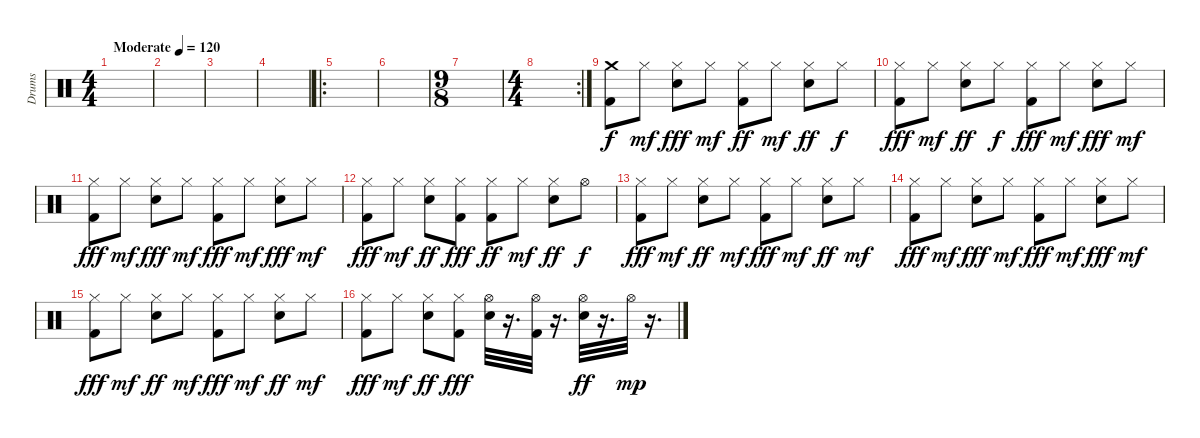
\track ("Drums" "Drums") {instrument percussion}
\staff {score}
\articulation defaults
\ts (4 4)
\tempo (120 "Moderate")
\clef neutral
\ks c
|
|
|
|
\ro
|
|
\ts (9 8)
|
\rc 2
\ts (4 4)
|
("Kick (hit) 2" "Crash medium (hit)").8 "Hi-Hat (closed)".8{dy mf} ("Hi-Hat (closed)" "Snare (hit) 2").8{dy fff} "Hi-Hat (closed)".8{dy mf} ("Kick (hit) 2" "Hi-Hat (closed)").8{dy ff} "Hi-Hat (closed)".8{dy mf} ("Hi-Hat (closed)" "Snare (hit) 2").8{dy ff} "Hi-Hat (closed)".8{dy f} |
("Hi-Hat (closed)" "Kick (hit) 2").8{dy fff} "Hi-Hat (closed)".8{dy mf} ("Hi-Hat (closed)" "Snare (hit) 2").8{dy ff} "Hi-Hat (closed)".8{dy f} ("Kick (hit) 2" "Hi-Hat (closed)").8{dy fff} "Hi-Hat (closed)".8{dy mf} ("Hi-Hat (closed)" "Snare (hit) 2").8{dy fff} "Hi-Hat (closed)".8{dy mf} |
("Hi-Hat (closed)" "Kick (hit) 2").8{dy fff} "Hi-Hat (closed)".8{dy mf} ("Hi-Hat (closed)" "Snare (hit) 2").8{dy fff} "Hi-Hat (closed)".8{dy mf} ("Hi-Hat (closed)" "Kick (hit) 2").8{dy fff} "Hi-Hat (closed)".8{dy mf} ("Snare (hit) 2" "Hi-Hat (closed)").8{dy fff} "Hi-Hat (closed)".8{dy mf} |
("Hi-Hat (closed)" "Kick (hit) 2").8{dy fff} "Hi-Hat (closed)".8{dy mf} ("Snare (hit) 2" "Hi-Hat (closed)").8{dy ff} ("Hi-Hat (closed)" "Kick (hit) 2").8{dy fff} ("Hi-Hat (closed)" "Kick (hit) 2").8{dy ff} "Hi-Hat (closed)".8{dy mf} ("Snare (hit) 2" "Hi-Hat (closed)").8{dy ff} "Hi-Hat (open)".8{dy f} |
("Hi-Hat (closed)" "Kick (hit) 2").8{dy fff} "Hi-Hat (closed)".8{dy mf} ("Snare (hit) 2" "Hi-Hat (closed)").8{dy ff} "Hi-Hat (closed)".8{dy mf} ("Hi-Hat (closed)" "Kick (hit) 2").8{dy fff} "Hi-Hat (closed)".8{dy mf} ("Hi-Hat (closed)" "Snare (hit) 2").8{dy ff} "Hi-Hat (closed)".8{dy mf} |
("Hi-Hat (closed)" "Kick (hit) 2").8{dy fff} "Hi-Hat (closed)".8{dy mf} ("Hi-Hat (closed)" "Snare (hit) 2").8{dy fff} "Hi-Hat (closed)".8{dy mf} ("Hi-Hat (closed)" "Kick (hit) 2").8{dy fff} "Hi-Hat (closed)".8{dy mf} ("Hi-Hat (closed)" "Snare (hit) 2").8{dy fff} "Hi-Hat (closed)".8{dy mf} |
("Hi-Hat (closed)" "Kick (hit) 2").8{dy fff} "Hi-Hat (closed)".8{dy mf} ("Snare (hit) 2" "Hi-Hat (closed)").8{dy ff} "Hi-Hat (closed)".8{dy mf} ("Hi-Hat (closed)" "Kick (hit) 2").8{dy fff} "Hi-Hat (closed)".8{dy mf} ("Hi-Hat (closed)" "Snare (hit) 2").8{dy ff} "Hi-Hat (closed)".8{dy mf} |
("Hi-Hat (closed)" "Kick (hit) 2").8{dy fff} "Hi-Hat (closed)".8{dy mf} ("Snare (hit) 2" "Hi-Hat (closed)").8{dy ff} ("Hi-Hat (closed)" "Kick (hit) 2").8{dy fff} ("Hi-Hat (open)" "Snare (hit) 2").32 r.16{d} ("Hi-Hat (open)" "Kick (hit) 2").32 r.16{d} ("Hi-Hat (open)" "Snare (hit) 2").32{dy ff} r.16{d} "Hi-Hat (open)".32{dy mp} r.16{d}
